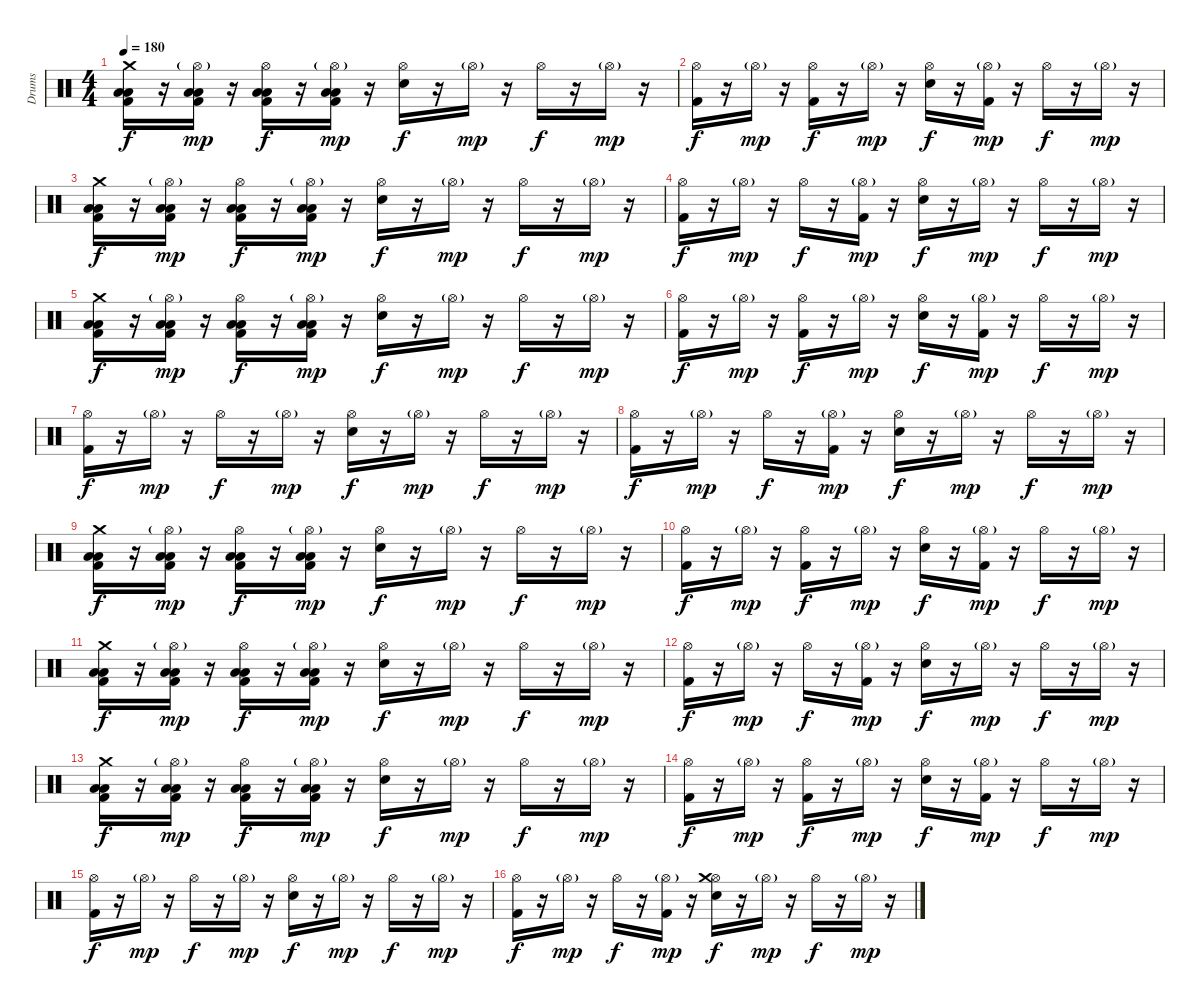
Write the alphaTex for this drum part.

\track ("Drums" "Drums") {instrument percussion}
\staff {score}
\articulation defaults
\ts (4 4)
\tempo 180
\clef neutral
\ks c
("Crash medium (hit)" "Kick (hit) 2" "Low Floor Tom (hit)" "Low Tom (hit)").16{dy f} r.16 ("Hi-Hat (open)"{g} "Kick (hit) 2" "Low Floor Tom (hit)" "Low Tom (hit)").16{dy mp} r.16 ("Hi-Hat (open)" "Kick (hit) 2" "Low Floor Tom (hit)" "Low Tom (hit)").16{dy f} r.16 ("Hi-Hat (open)"{g} "Kick (hit) 2" "Low Floor Tom (hit)" "Low Tom (hit)").16{dy mp} r.16 ("Hi-Hat (open)" "Electric Snare (hit)").16{dy f} r.16 "Hi-Hat (open)"{g}.16{dy mp} r.16 "Hi-Hat (open)".16{dy f} r.16 "Hi-Hat (open)"{g}.16{dy mp} r.16 |
("Hi-Hat (open)" "Kick (hit) 2").16{dy f} r.16 "Hi-Hat (open)"{g}.16{dy mp} r.16 ("Hi-Hat (open)" "Kick (hit) 2").16{dy f} r.16 "Hi-Hat (open)"{g}.16{dy mp} r.16 ("Hi-Hat (open)" "Electric Snare (hit)").16{dy f} r.16 ("Hi-Hat (open)"{g} "Kick (hit) 2").16{dy mp} r.16 "Hi-Hat (open)".16{dy f} r.16 "Hi-Hat (open)"{g}.16{dy mp} r.16 |
("Crash medium (hit)" "Kick (hit) 2" "Low Floor Tom (hit)" "Low Tom (hit)").16{dy f} r.16 ("Hi-Hat (open)"{g} "Kick (hit) 2" "Low Floor Tom (hit)" "Low Tom (hit)").16{dy mp} r.16 ("Hi-Hat (open)" "Kick (hit) 2" "Low Floor Tom (hit)" "Low Tom (hit)").16{dy f} r.16 ("Hi-Hat (open)"{g} "Kick (hit) 2" "Low Floor Tom (hit)" "Low Tom (hit)").16{dy mp} r.16 ("Hi-Hat (open)" "Electric Snare (hit)").16{dy f} r.16 "Hi-Hat (open)"{g}.16{dy mp} r.16 "Hi-Hat (open)".16{dy f} r.16 "Hi-Hat (open)"{g}.16{dy mp} r.16 |
("Hi-Hat (open)" "Kick (hit) 2").16{dy f} r.16 "Hi-Hat (open)"{g}.16{dy mp} r.16 "Hi-Hat (open)".16{dy f} r.16 ("Hi-Hat (open)"{g} "Kick (hit) 2").16{dy mp} r.16 ("Hi-Hat (open)" "Electric Snare (hit)").16{dy f} r.16 "Hi-Hat (open)"{g}.16{dy mp} r.16 "Hi-Hat (open)".16{dy f} r.16 "Hi-Hat (open)"{g}.16{dy mp} r.16 |
("Crash medium (hit)" "Kick (hit) 2" "Low Floor Tom (hit)" "Low Tom (hit)").16{dy f} r.16 ("Hi-Hat (open)"{g} "Kick (hit) 2" "Low Floor Tom (hit)" "Low Tom (hit)").16{dy mp} r.16 ("Hi-Hat (open)" "Kick (hit) 2" "Low Floor Tom (hit)" "Low Tom (hit)").16{dy f} r.16 ("Hi-Hat (open)"{g} "Kick (hit) 2" "Low Floor Tom (hit)" "Low Tom (hit)").16{dy mp} r.16 ("Hi-Hat (open)" "Electric Snare (hit)").16{dy f} r.16 "Hi-Hat (open)"{g}.16{dy mp} r.16 "Hi-Hat (open)".16{dy f} r.16 "Hi-Hat (open)"{g}.16{dy mp} r.16 |
("Hi-Hat (open)" "Kick (hit) 2").16{dy f} r.16 "Hi-Hat (open)"{g}.16{dy mp} r.16 ("Hi-Hat (open)" "Kick (hit) 2").16{dy f} r.16 "Hi-Hat (open)"{g}.16{dy mp} r.16 ("Hi-Hat (open)" "Electric Snare (hit)").16{dy f} r.16 ("Hi-Hat (open)"{g} "Kick (hit) 2").16{dy mp} r.16 "Hi-Hat (open)".16{dy f} r.16 "Hi-Hat (open)"{g}.16{dy mp} r.16 |
("Hi-Hat (open)" "Kick (hit) 2").16{dy f} r.16 "Hi-Hat (open)"{g}.16{dy mp} r.16 "Hi-Hat (open)".16{dy f} r.16 "Hi-Hat (open)"{g}.16{dy mp} r.16 ("Hi-Hat (open)" "Electric Snare (hit)").16{dy f} r.16 "Hi-Hat (open)"{g}.16{dy mp} r.16 "Hi-Hat (open)".16{dy f} r.16 "Hi-Hat (open)"{g}.16{dy mp} r.16 |
("Hi-Hat (open)" "Kick (hit) 2").16{dy f} r.16 "Hi-Hat (open)"{g}.16{dy mp} r.16 "Hi-Hat (open)".16{dy f} r.16 ("Hi-Hat (open)"{g} "Kick (hit) 2").16{dy mp} r.16 ("Hi-Hat (open)" "Electric Snare (hit)").16{dy f} r.16 "Hi-Hat (open)"{g}.16{dy mp} r.16 "Hi-Hat (open)".16{dy f} r.16 "Hi-Hat (open)"{g}.16{dy mp} r.16 |
("Crash medium (hit)" "Kick (hit) 2" "Low Floor Tom (hit)" "Low Tom (hit)").16{dy f} r.16 ("Hi-Hat (open)"{g} "Kick (hit) 2" "Low Floor Tom (hit)" "Low Tom (hit)").16{dy mp} r.16 ("Hi-Hat (open)" "Kick (hit) 2" "Low Floor Tom (hit)" "Low Tom (hit)").16{dy f} r.16 ("Hi-Hat (open)"{g} "Kick (hit) 2" "Low Floor Tom (hit)" "Low Tom (hit)").16{dy mp} r.16 ("Hi-Hat (open)" "Electric Snare (hit)").16{dy f} r.16 "Hi-Hat (open)"{g}.16{dy mp} r.16 "Hi-Hat (open)".16{dy f} r.16 "Hi-Hat (open)"{g}.16{dy mp} r.16 |
("Hi-Hat (open)" "Kick (hit) 2").16{dy f} r.16 "Hi-Hat (open)"{g}.16{dy mp} r.16 ("Hi-Hat (open)" "Kick (hit) 2").16{dy f} r.16 "Hi-Hat (open)"{g}.16{dy mp} r.16 ("Hi-Hat (open)" "Electric Snare (hit)").16{dy f} r.16 ("Hi-Hat (open)"{g} "Kick (hit) 2").16{dy mp} r.16 "Hi-Hat (open)".16{dy f} r.16 "Hi-Hat (open)"{g}.16{dy mp} r.16 |
("Crash medium (hit)" "Kick (hit) 2" "Low Floor Tom (hit)" "Low Tom (hit)").16{dy f} r.16 ("Hi-Hat (open)"{g} "Kick (hit) 2" "Low Floor Tom (hit)" "Low Tom (hit)").16{dy mp} r.16 ("Hi-Hat (open)" "Kick (hit) 2" "Low Floor Tom (hit)" "Low Tom (hit)").16{dy f} r.16 ("Hi-Hat (open)"{g} "Kick (hit) 2" "Low Floor Tom (hit)" "Low Tom (hit)").16{dy mp} r.16 ("Hi-Hat (open)" "Electric Snare (hit)").16{dy f} r.16 "Hi-Hat (open)"{g}.16{dy mp} r.16 "Hi-Hat (open)".16{dy f} r.16 "Hi-Hat (open)"{g}.16{dy mp} r.16 |
("Hi-Hat (open)" "Kick (hit) 2").16{dy f} r.16 "Hi-Hat (open)"{g}.16{dy mp} r.16 "Hi-Hat (open)".16{dy f} r.16 ("Hi-Hat (open)"{g} "Kick (hit) 2").16{dy mp} r.16 ("Hi-Hat (open)" "Electric Snare (hit)").16{dy f} r.16 "Hi-Hat (open)"{g}.16{dy mp} r.16 "Hi-Hat (open)".16{dy f} r.16 "Hi-Hat (open)"{g}.16{dy mp} r.16 |
("Crash medium (hit)" "Kick (hit) 2" "Low Floor Tom (hit)" "Low Tom (hit)").16{dy f} r.16 ("Hi-Hat (open)"{g} "Kick (hit) 2" "Low Floor Tom (hit)" "Low Tom (hit)").16{dy mp} r.16 ("Hi-Hat (open)" "Kick (hit) 2" "Low Floor Tom (hit)" "Low Tom (hit)").16{dy f} r.16 ("Hi-Hat (open)"{g} "Kick (hit) 2" "Low Floor Tom (hit)" "Low Tom (hit)").16{dy mp} r.16 ("Hi-Hat (open)" "Electric Snare (hit)").16{dy f} r.16 "Hi-Hat (open)"{g}.16{dy mp} r.16 "Hi-Hat (open)".16{dy f} r.16 "Hi-Hat (open)"{g}.16{dy mp} r.16 |
("Hi-Hat (open)" "Kick (hit) 2").16{dy f} r.16 "Hi-Hat (open)"{g}.16{dy mp} r.16 ("Hi-Hat (open)" "Kick (hit) 2").16{dy f} r.16 "Hi-Hat (open)"{g}.16{dy mp} r.16 ("Hi-Hat (open)" "Electric Snare (hit)").16{dy f} r.16 ("Hi-Hat (open)"{g} "Kick (hit) 2").16{dy mp} r.16 "Hi-Hat (open)".16{dy f} r.16 "Hi-Hat (open)"{g}.16{dy mp} r.16 |
("Hi-Hat (open)" "Kick (hit) 2").16{dy f} r.16 "Hi-Hat (open)"{g}.16{dy mp} r.16 "Hi-Hat (open)".16{dy f} r.16 "Hi-Hat (open)"{g}.16{dy mp} r.16 ("Hi-Hat (open)" "Electric Snare (hit)").16{dy f} r.16 "Hi-Hat (open)"{g}.16{dy mp} r.16 "Hi-Hat (open)".16{dy f} r.16 "Hi-Hat (open)"{g}.16{dy mp} r.16 |
("Hi-Hat (open)" "Kick (hit) 2").16{dy f} r.16 "Hi-Hat (open)"{g}.16{dy mp} r.16 "Hi-Hat (open)".16{dy f} r.16 ("Hi-Hat (open)"{g} "Kick (hit) 2").16{dy mp} r.16 ("Hi-Hat (open)" "Electric Snare (hit)" "Crash medium (hit)").16{dy f} r.16 "Hi-Hat (open)"{g}.16{dy mp} r.16 "Hi-Hat (open)".16{dy f} r.16 "Hi-Hat (open)"{g}.16{dy mp} r.16
